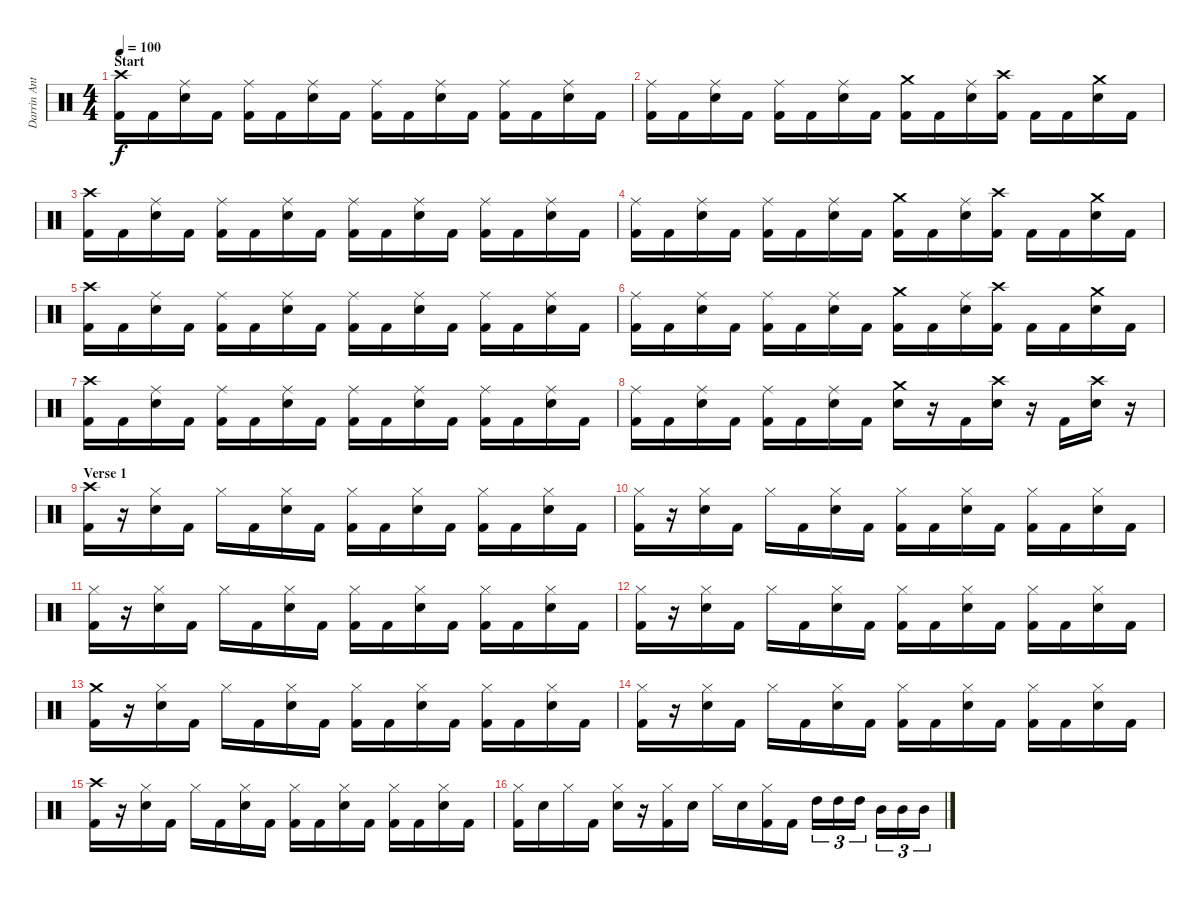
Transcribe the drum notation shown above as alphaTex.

\track ("Darrin Anthony" "Darrin Ant") {instrument percussion}
\staff {score}
\articulation defaults
\ts (4 4)
\section ("" "Start")
\tempo 100
\clef neutral
\ks c
("Crash high (hit)" "Kick (hit) 2").16{dy f} "Kick (hit) 2".16 ("Ride (middle)" "Electric Snare (hit)").16 "Kick (hit) 2".16 ("Ride (middle)" "Kick (hit) 2").16 "Kick (hit) 2".16 ("Ride (middle)" "Electric Snare (hit)").16 "Kick (hit) 2".16 ("Ride (middle)" "Kick (hit) 2").16 "Kick (hit) 2".16 ("Ride (middle)" "Electric Snare (hit)").16 "Kick (hit) 2".16 ("Ride (middle)" "Kick (hit) 2").16 "Kick (hit) 2".16 ("Ride (middle)" "Electric Snare (hit)").16 "Kick (hit) 2".16 |
("Ride (middle)" "Kick (hit) 2").16 "Kick (hit) 2".16 ("Ride (middle)" "Electric Snare (hit)").16 "Kick (hit) 2".16 ("Ride (middle)" "Kick (hit) 2").16 "Kick (hit) 2".16 ("Ride (middle)" "Electric Snare (hit)").16 "Kick (hit) 2".16 ("Crash medium (hit)" "Kick (hit) 2").16 "Kick (hit) 2".16 ("Ride (middle)" "Electric Snare (hit)").16 ("Crash high (hit)" "Kick (hit) 2").16 "Kick (hit) 2".16 "Kick (hit) 2".16 ("Crash medium (hit)" "Electric Snare (hit)").16 "Kick (hit) 2".16 |
("Crash high (hit)" "Kick (hit) 2").16 "Kick (hit) 2".16 ("Ride (middle)" "Electric Snare (hit)").16 "Kick (hit) 2".16 ("Ride (middle)" "Kick (hit) 2").16 "Kick (hit) 2".16 ("Ride (middle)" "Electric Snare (hit)").16 "Kick (hit) 2".16 ("Ride (middle)" "Kick (hit) 2").16 "Kick (hit) 2".16 ("Ride (middle)" "Electric Snare (hit)").16 "Kick (hit) 2".16 ("Ride (middle)" "Kick (hit) 2").16 "Kick (hit) 2".16 ("Ride (middle)" "Electric Snare (hit)").16 "Kick (hit) 2".16 |
("Ride (middle)" "Kick (hit) 2").16 "Kick (hit) 2".16 ("Ride (middle)" "Electric Snare (hit)").16 "Kick (hit) 2".16 ("Ride (middle)" "Kick (hit) 2").16 "Kick (hit) 2".16 ("Ride (middle)" "Electric Snare (hit)").16 "Kick (hit) 2".16 ("Crash medium (hit)" "Kick (hit) 2").16 "Kick (hit) 2".16 ("Ride (middle)" "Electric Snare (hit)").16 ("Crash high (hit)" "Kick (hit) 2").16 "Kick (hit) 2".16 "Kick (hit) 2".16 ("Crash medium (hit)" "Electric Snare (hit)").16 "Kick (hit) 2".16 |
("Crash high (hit)" "Kick (hit) 2").16 "Kick (hit) 2".16 ("Ride (middle)" "Electric Snare (hit)").16 "Kick (hit) 2".16 ("Ride (middle)" "Kick (hit) 2").16 "Kick (hit) 2".16 ("Ride (middle)" "Electric Snare (hit)").16 "Kick (hit) 2".16 ("Ride (middle)" "Kick (hit) 2").16 "Kick (hit) 2".16 ("Ride (middle)" "Electric Snare (hit)").16 "Kick (hit) 2".16 ("Ride (middle)" "Kick (hit) 2").16 "Kick (hit) 2".16 ("Ride (middle)" "Electric Snare (hit)").16 "Kick (hit) 2".16 |
("Ride (middle)" "Kick (hit) 2").16 "Kick (hit) 2".16 ("Ride (middle)" "Electric Snare (hit)").16 "Kick (hit) 2".16 ("Ride (middle)" "Kick (hit) 2").16 "Kick (hit) 2".16 ("Ride (middle)" "Electric Snare (hit)").16 "Kick (hit) 2".16 ("Crash medium (hit)" "Kick (hit) 2").16 "Kick (hit) 2".16 ("Ride (middle)" "Electric Snare (hit)").16 ("Crash high (hit)" "Kick (hit) 2").16 "Kick (hit) 2".16 "Kick (hit) 2".16 ("Crash medium (hit)" "Electric Snare (hit)").16 "Kick (hit) 2".16 |
("Crash high (hit)" "Kick (hit) 2").16 "Kick (hit) 2".16 ("Ride (middle)" "Electric Snare (hit)").16 "Kick (hit) 2".16 ("Ride (middle)" "Kick (hit) 2").16 "Kick (hit) 2".16 ("Ride (middle)" "Electric Snare (hit)").16 "Kick (hit) 2".16 ("Ride (middle)" "Kick (hit) 2").16 "Kick (hit) 2".16 ("Ride (middle)" "Electric Snare (hit)").16 "Kick (hit) 2".16 ("Ride (middle)" "Kick (hit) 2").16 "Kick (hit) 2".16 ("Ride (middle)" "Electric Snare (hit)").16 "Kick (hit) 2".16 |
("Ride (middle)" "Kick (hit) 2").16 "Kick (hit) 2".16 ("Ride (middle)" "Electric Snare (hit)").16 "Kick (hit) 2".16 ("Ride (middle)" "Kick (hit) 2").16 "Kick (hit) 2".16 ("Ride (middle)" "Electric Snare (hit)").16 "Kick (hit) 2".16 ("Crash medium (hit)" "Electric Snare (hit)").16 r.16 "Kick (hit) 2".16 ("Crash high (hit)" "Electric Snare (hit)").16 r.16 "Kick (hit) 2".16 ("Crash high (hit)" "Electric Snare (hit)").16 r.16 |
\section ("" "Verse 1")
("Crash high (hit)" "Kick (hit) 2").16 r.16 ("Hi-Hat (closed)" "Electric Snare (hit)").16 "Kick (hit) 2".16 "Hi-Hat (closed)".16 "Kick (hit) 2".16 ("Hi-Hat (closed)" "Electric Snare (hit)").16 "Kick (hit) 2".16 ("Hi-Hat (closed)" "Kick (hit) 2").16 "Kick (hit) 2".16 ("Hi-Hat (closed)" "Electric Snare (hit)").16 "Kick (hit) 2".16 ("Hi-Hat (closed)" "Kick (hit) 2").16 "Kick (hit) 2".16 ("Hi-Hat (closed)" "Electric Snare (hit)").16 "Kick (hit) 2".16 |
("Hi-Hat (closed)" "Kick (hit) 2").16 r.16 ("Hi-Hat (closed)" "Electric Snare (hit)").16 "Kick (hit) 2".16 "Hi-Hat (closed)".16 "Kick (hit) 2".16 ("Hi-Hat (closed)" "Electric Snare (hit)").16 "Kick (hit) 2".16 ("Hi-Hat (closed)" "Kick (hit) 2").16 "Kick (hit) 2".16 ("Hi-Hat (closed)" "Electric Snare (hit)").16 "Kick (hit) 2".16 ("Hi-Hat (closed)" "Kick (hit) 2").16 "Kick (hit) 2".16 ("Hi-Hat (closed)" "Electric Snare (hit)").16 "Kick (hit) 2".16 |
("Hi-Hat (closed)" "Kick (hit) 2").16 r.16 ("Hi-Hat (closed)" "Electric Snare (hit)").16 "Kick (hit) 2".16 "Hi-Hat (closed)".16 "Kick (hit) 2".16 ("Hi-Hat (closed)" "Electric Snare (hit)").16 "Kick (hit) 2".16 ("Hi-Hat (closed)" "Kick (hit) 2").16 "Kick (hit) 2".16 ("Hi-Hat (closed)" "Electric Snare (hit)").16 "Kick (hit) 2".16 ("Hi-Hat (closed)" "Kick (hit) 2").16 "Kick (hit) 2".16 ("Hi-Hat (closed)" "Electric Snare (hit)").16 "Kick (hit) 2".16 |
("Hi-Hat (closed)" "Kick (hit) 2").16 r.16 ("Hi-Hat (closed)" "Electric Snare (hit)").16 "Kick (hit) 2".16 "Hi-Hat (closed)".16 "Kick (hit) 2".16 ("Hi-Hat (closed)" "Electric Snare (hit)").16 "Kick (hit) 2".16 ("Hi-Hat (closed)" "Kick (hit) 2").16 "Kick (hit) 2".16 ("Hi-Hat (closed)" "Electric Snare (hit)").16 "Kick (hit) 2".16 ("Hi-Hat (closed)" "Kick (hit) 2").16 "Kick (hit) 2".16 ("Hi-Hat (closed)" "Electric Snare (hit)").16 "Kick (hit) 2".16 |
("Crash medium (hit)" "Kick (hit) 2").16 r.16 ("Hi-Hat (closed)" "Electric Snare (hit)").16 "Kick (hit) 2".16 "Hi-Hat (closed)".16 "Kick (hit) 2".16 ("Hi-Hat (closed)" "Electric Snare (hit)").16 "Kick (hit) 2".16 ("Hi-Hat (closed)" "Kick (hit) 2").16 "Kick (hit) 2".16 ("Hi-Hat (closed)" "Electric Snare (hit)").16 "Kick (hit) 2".16 ("Hi-Hat (closed)" "Kick (hit) 2").16 "Kick (hit) 2".16 ("Hi-Hat (closed)" "Electric Snare (hit)").16 "Kick (hit) 2".16 |
("Hi-Hat (closed)" "Kick (hit) 2").16 r.16 ("Hi-Hat (closed)" "Electric Snare (hit)").16 "Kick (hit) 2".16 "Hi-Hat (closed)".16 "Kick (hit) 2".16 ("Hi-Hat (closed)" "Electric Snare (hit)").16 "Kick (hit) 2".16 ("Hi-Hat (closed)" "Kick (hit) 2").16 "Kick (hit) 2".16 ("Hi-Hat (closed)" "Electric Snare (hit)").16 "Kick (hit) 2".16 ("Hi-Hat (closed)" "Kick (hit) 2").16 "Kick (hit) 2".16 ("Hi-Hat (closed)" "Electric Snare (hit)").16 "Kick (hit) 2".16 |
("Crash high (hit)" "Kick (hit) 2").16 r.16 ("Hi-Hat (closed)" "Electric Snare (hit)").16 "Kick (hit) 2".16 "Hi-Hat (closed)".16 "Kick (hit) 2".16 ("Hi-Hat (closed)" "Electric Snare (hit)").16 "Kick (hit) 2".16 ("Hi-Hat (closed)" "Kick (hit) 2").16 "Kick (hit) 2".16 ("Hi-Hat (closed)" "Electric Snare (hit)").16 "Kick (hit) 2".16 ("Hi-Hat (closed)" "Kick (hit) 2").16 "Kick (hit) 2".16 ("Hi-Hat (closed)" "Electric Snare (hit)").16 "Kick (hit) 2".16 |
("Hi-Hat (closed)" "Kick (hit) 2").16 "Electric Snare (hit)".16 "Hi-Hat (closed)".16 "Kick (hit) 2".16 ("Hi-Hat (closed)" "Electric Snare (hit)").16 r.16 ("Hi-Hat (closed)" "Kick (hit) 2").16 "Electric Snare (hit)".16 "Hi-Hat (closed)".16 "Electric Snare (hit)".16 ("Hi-Hat (closed)" "Kick (hit) 2").16 "Kick (hit) 2".16 "High Tom (hit)".16{tu (3 2)} "High Tom (hit)".16{tu (3 2)} "High Tom (hit)".16{tu (3 2)} "Mid Tom (hit)".16{tu (3 2)} "Mid Tom (hit)".16{tu (3 2)} "Mid Tom (hit)".16{tu (3 2)}
